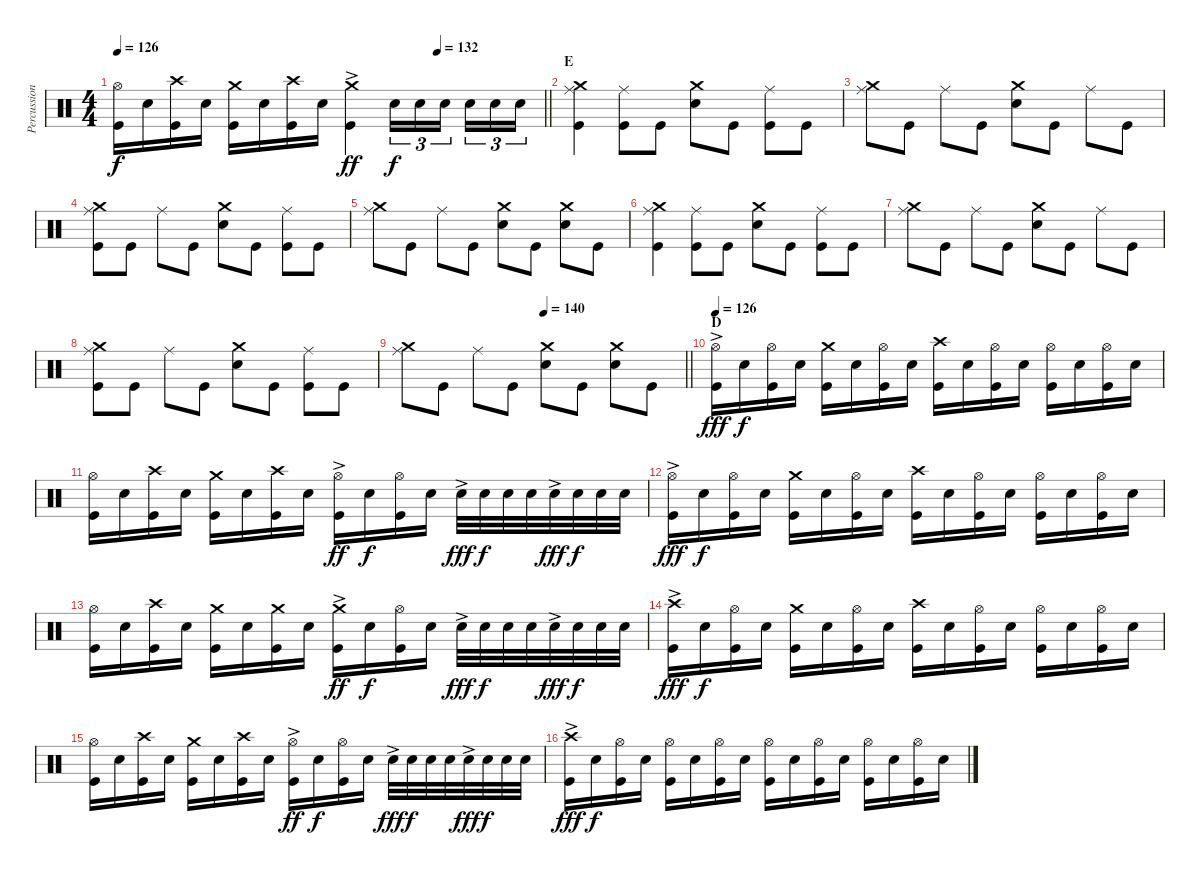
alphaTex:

\track ("Percussion" "Percussion") {instrument percussion}
\staff {score}
\articulation defaults
\ts (4 4)
\tempo 126
\tempo (132 0.75)
\clef neutral
\barLineRight lightlight
\ks c
("Kick (hit)" "Hi-Hat (open)").16{dy f} "Snare (hit) 2".16 ("Kick (hit)" "Crash high (hit)").16 "Snare (hit) 2".16 ("Kick (hit)" "Crash medium (hit)").16 "Snare (hit) 2".16 ("Kick (hit)" "Crash high (hit)").16 "Snare (hit) 2".16 ("Kick (hit)" "Crash medium (hit)"{ac}).4{dy ff} "Snare (hit) 2".16{tu (3 2) dy f} "Snare (hit) 2".16{tu (3 2)} "Snare (hit) 2".16{tu (3 2)} "Snare (hit) 2".16{tu (3 2)} "Snare (hit) 2".16{tu (3 2)} "Snare (hit) 2".16{tu (3 2)} |
\section ("" "E")
("Kick (hit)" "Ride (middle)" "Crash medium (hit)").4 ("Kick (hit)" "Ride (middle)").8 "Kick (hit)".8 ("Snare (hit) 2" "Crash medium (hit)").8 "Kick (hit)".8 ("Kick (hit)" "Ride (middle)").8 "Kick (hit)".8 |
("Crash medium (hit)" "Ride (middle)").8 "Kick (hit)".8 "Ride (middle)".8 "Kick (hit)".8 ("Snare (hit) 2" "Crash medium (hit)").8 "Kick (hit)".8 "Ride (middle)".8 "Kick (hit)".8 |
("Kick (hit)" "Crash medium (hit)" "Ride (middle)").8 "Kick (hit)".8 "Ride (middle)".8 "Kick (hit)".8 ("Snare (hit) 2" "Crash medium (hit)").8 "Kick (hit)".8 ("Kick (hit)" "Ride (middle)").8 "Kick (hit)".8 |
("Crash medium (hit)" "Ride (middle)").8 "Kick (hit)".8 "Ride (middle)".8 "Kick (hit)".8 ("Snare (hit) 2" "Crash medium (hit)").8 "Kick (hit)".8 ("Snare (hit) 2" "Crash medium (hit)").8 "Kick (hit)".8 |
("Kick (hit)" "Ride (middle)" "Crash medium (hit)").4 ("Kick (hit)" "Ride (middle)").8 "Kick (hit)".8 ("Snare (hit) 2" "Crash medium (hit)").8 "Kick (hit)".8 ("Kick (hit)" "Ride (middle)").8 "Kick (hit)".8 |
("Crash medium (hit)" "Ride (middle)").8 "Kick (hit)".8 "Ride (middle)".8 "Kick (hit)".8 ("Snare (hit) 2" "Crash medium (hit)").8 "Kick (hit)".8 "Ride (middle)".8 "Kick (hit)".8 |
("Kick (hit)" "Crash medium (hit)" "Ride (middle)").8 "Kick (hit)".8 "Ride (middle)".8 "Kick (hit)".8 ("Snare (hit) 2" "Crash medium (hit)").8 "Kick (hit)".8 ("Kick (hit)" "Ride (middle)").8 "Kick (hit)".8 |
\tempo (140 0.5)
\barLineRight lightlight
("Crash medium (hit)" "Ride (middle)").8 "Kick (hit)".8 "Ride (middle)".8 "Kick (hit)".8 ("Snare (hit) 2" "Crash medium (hit)").8 "Kick (hit)".8 ("Snare (hit) 2" "Crash medium (hit)").8 "Kick (hit)".8 |
\section ("" "D")
\tempo 126
("Kick (hit)" "Hi-Hat (open)"{ac}).16{dy fff} "Snare (hit) 2".16{dy f} ("Kick (hit)" "Hi-Hat (open)").16 "Snare (hit) 2".16 ("Kick (hit)" "Crash medium (hit)").16 "Snare (hit) 2".16 ("Kick (hit)" "Hi-Hat (open)").16 "Snare (hit) 2".16 ("Kick (hit)" "Crash high (hit)").16 "Snare (hit) 2".16 ("Kick (hit)" "Hi-Hat (open)").16 "Snare (hit) 2".16 ("Kick (hit)" "Hi-Hat (open)").16 "Snare (hit) 2".16 ("Kick (hit)" "Hi-Hat (open)").16 "Snare (hit) 2".16 |
("Kick (hit)" "Hi-Hat (open)").16 "Snare (hit) 2".16 ("Kick (hit)" "Crash high (hit)").16 "Snare (hit) 2".16 ("Kick (hit)" "Crash medium (hit)").16 "Snare (hit) 2".16 ("Kick (hit)" "Crash high (hit)").16 "Snare (hit) 2".16 ("Kick (hit)" "Hi-Hat (open)"{ac}).16{dy ff} "Snare (hit) 2".16{dy f} ("Kick (hit)" "Hi-Hat (open)").16 "Snare (hit) 2".16 "Snare (hit) 2"{ac}.32{dy fff} "Snare (hit) 2".32{dy f} "Snare (hit) 2".32 "Snare (hit) 2".32 "Snare (hit) 2"{ac}.32{dy fff} "Snare (hit) 2".32{dy f} "Snare (hit) 2".32 "Snare (hit) 2".32 |
("Kick (hit)" "Hi-Hat (open)"{ac}).16{dy fff} "Snare (hit) 2".16{dy f} ("Kick (hit)" "Hi-Hat (open)").16 "Snare (hit) 2".16 ("Kick (hit)" "Crash medium (hit)").16 "Snare (hit) 2".16 ("Kick (hit)" "Hi-Hat (open)").16 "Snare (hit) 2".16 ("Kick (hit)" "Crash high (hit)").16 "Snare (hit) 2".16 ("Kick (hit)" "Hi-Hat (open)").16 "Snare (hit) 2".16 ("Kick (hit)" "Hi-Hat (open)").16 "Snare (hit) 2".16 ("Kick (hit)" "Hi-Hat (open)").16 "Snare (hit) 2".16 |
("Kick (hit)" "Hi-Hat (open)").16 "Snare (hit) 2".16 ("Kick (hit)" "Crash high (hit)").16 "Snare (hit) 2".16 ("Kick (hit)" "Crash medium (hit)").16 "Snare (hit) 2".16 ("Kick (hit)" "Crash medium (hit)").16 "Snare (hit) 2".16 ("Kick (hit)" "Crash medium (hit)"{ac}).16{dy ff} "Snare (hit) 2".16{dy f} ("Kick (hit)" "Hi-Hat (open)").16 "Snare (hit) 2".16 "Snare (hit) 2"{ac}.32{dy fff} "Snare (hit) 2".32{dy f} "Snare (hit) 2".32 "Snare (hit) 2".32 "Snare (hit) 2"{ac}.32{dy fff} "Snare (hit) 2".32{dy f} "Snare (hit) 2".32 "Snare (hit) 2".32 |
("Kick (hit)" "Crash high (hit)"{ac}).16{dy fff} "Snare (hit) 2".16{dy f} ("Kick (hit)" "Hi-Hat (open)").16 "Snare (hit) 2".16 ("Kick (hit)" "Crash medium (hit)").16 "Snare (hit) 2".16 ("Kick (hit)" "Hi-Hat (open)").16 "Snare (hit) 2".16 ("Kick (hit)" "Crash high (hit)").16 "Snare (hit) 2".16 ("Kick (hit)" "Hi-Hat (open)").16 "Snare (hit) 2".16 ("Kick (hit)" "Hi-Hat (open)").16 "Snare (hit) 2".16 ("Kick (hit)" "Hi-Hat (open)").16 "Snare (hit) 2".16 |
("Kick (hit)" "Hi-Hat (open)").16 "Snare (hit) 2".16 ("Kick (hit)" "Crash high (hit)").16 "Snare (hit) 2".16 ("Kick (hit)" "Crash medium (hit)").16 "Snare (hit) 2".16 ("Kick (hit)" "Crash high (hit)").16 "Snare (hit) 2".16 ("Kick (hit)" "Hi-Hat (open)"{ac}).16{dy ff} "Snare (hit) 2".16{dy f} ("Kick (hit)" "Hi-Hat (open)").16 "Snare (hit) 2".16 "Snare (hit) 2"{ac}.32{dy fff} "Snare (hit) 2".32{dy f} "Snare (hit) 2".32 "Snare (hit) 2".32 "Snare (hit) 2"{ac}.32{dy fff} "Snare (hit) 2".32{dy f} "Snare (hit) 2".32 "Snare (hit) 2".32 |
("Kick (hit)" "Crash high (hit)"{ac}).16{dy fff} "Snare (hit) 2".16{dy f} ("Kick (hit)" "Hi-Hat (open)").16 "Snare (hit) 2".16 ("Kick (hit)" "Hi-Hat (open)").16 "Snare (hit) 2".16 ("Kick (hit)" "Hi-Hat (open)").16 "Snare (hit) 2".16 ("Kick (hit)" "Hi-Hat (open)").16 "Snare (hit) 2".16 ("Kick (hit)" "Hi-Hat (open)").16 "Snare (hit) 2".16 ("Kick (hit)" "Hi-Hat (open)").16 "Snare (hit) 2".16 ("Kick (hit)" "Hi-Hat (open)").16 "Snare (hit) 2".16
